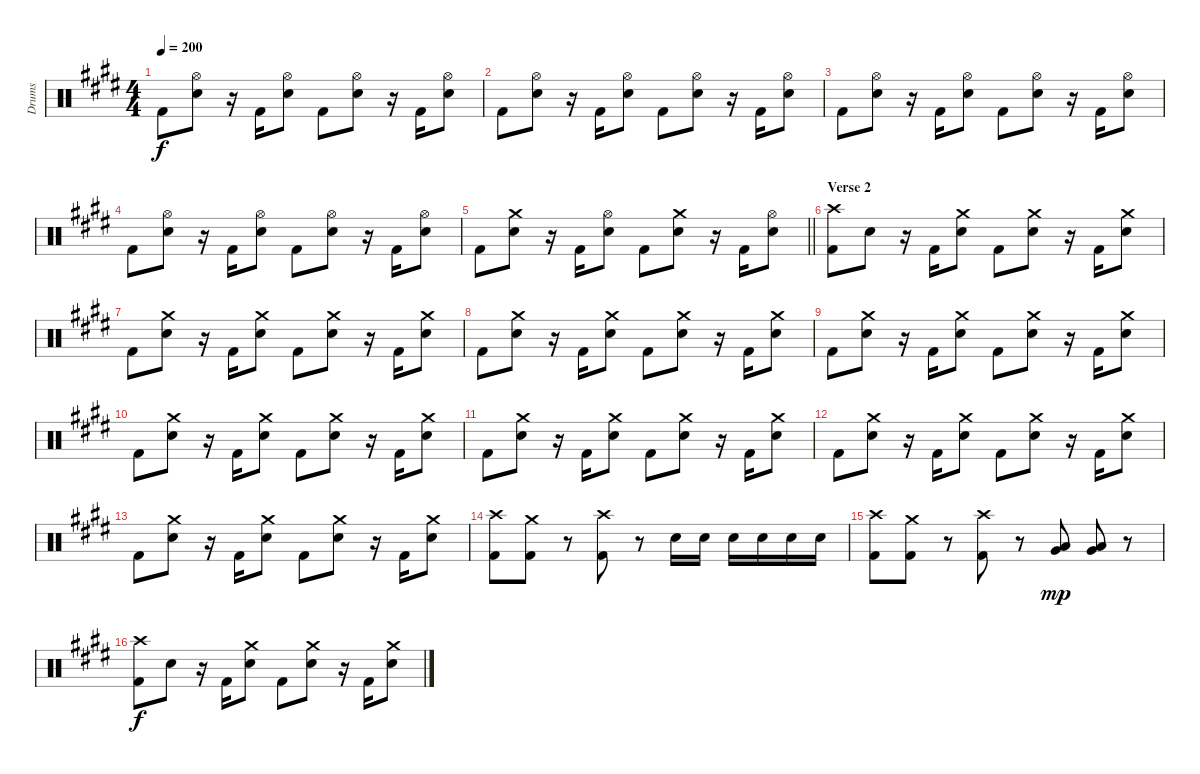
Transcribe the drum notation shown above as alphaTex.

\track ("Drums" "Drums") {instrument percussion}
\staff {score}
\articulation defaults
\ts (4 4)
\tempo 200
\clef neutral
\ks c#minor "Kick (hit) 2".8{dy f}
("Hi-Hat (open)" "Electric Snare (hit)").8 r.16 "Kick (hit) 2".16 ("Hi-Hat (open)" "Electric Snare (hit)").8 "Kick (hit) 2".8 ("Hi-Hat (open)" "Electric Snare (hit)").8 r.16 "Kick (hit) 2".16 ("Hi-Hat (open)" "Electric Snare (hit)").8 |
"Kick (hit) 2".8 ("Hi-Hat (open)" "Electric Snare (hit)").8 r.16 "Kick (hit) 2".16 ("Hi-Hat (open)" "Electric Snare (hit)").8 "Kick (hit) 2".8 ("Hi-Hat (open)" "Electric Snare (hit)").8 r.16 "Kick (hit) 2".16 ("Hi-Hat (open)" "Electric Snare (hit)").8 |
"Kick (hit) 2".8 ("Hi-Hat (open)" "Electric Snare (hit)").8 r.16 "Kick (hit) 2".16 ("Hi-Hat (open)" "Electric Snare (hit)").8 "Kick (hit) 2".8 ("Hi-Hat (open)" "Electric Snare (hit)").8 r.16 "Kick (hit) 2".16 ("Hi-Hat (open)" "Electric Snare (hit)").8 |
"Kick (hit) 2".8 ("Hi-Hat (open)" "Electric Snare (hit)").8 r.16 "Kick (hit) 2".16 ("Hi-Hat (open)" "Electric Snare (hit)").8 "Kick (hit) 2".8 ("Hi-Hat (open)" "Electric Snare (hit)").8 r.16 "Kick (hit) 2".16 ("Hi-Hat (open)" "Electric Snare (hit)").8 |
\barLineRight lightlight "Kick (hit) 2".8
("Crash medium (hit)" "Electric Snare (hit)").8 r.16 "Kick (hit) 2".16 ("Hi-Hat (open)" "Electric Snare (hit)").8 "Kick (hit) 2".8 ("Crash medium (hit)" "Electric Snare (hit)").8 r.16 "Kick (hit) 2".16 ("Hi-Hat (open)" "Electric Snare (hit)").8 |
\section ("" "Verse 2")
("Crash high (hit)" "Kick (hit) 2").8 "Electric Snare (hit)".8 r.16 "Kick (hit) 2".16 ("Crash medium (hit)" "Electric Snare (hit)").8 "Kick (hit) 2".8 ("Crash medium (hit)" "Electric Snare (hit)").8 r.16 "Kick (hit) 2".16 ("Crash medium (hit)" "Electric Snare (hit)").8 |
"Kick (hit) 2".8 ("Crash medium (hit)" "Electric Snare (hit)").8 r.16 "Kick (hit) 2".16 ("Crash medium (hit)" "Electric Snare (hit)").8 "Kick (hit) 2".8 ("Crash medium (hit)" "Electric Snare (hit)").8 r.16 "Kick (hit) 2".16 ("Crash medium (hit)" "Electric Snare (hit)").8 |
"Kick (hit) 2".8 ("Crash medium (hit)" "Electric Snare (hit)").8 r.16 "Kick (hit) 2".16 ("Crash medium (hit)" "Electric Snare (hit)").8 "Kick (hit) 2".8 ("Crash medium (hit)" "Electric Snare (hit)").8 r.16 "Kick (hit) 2".16 ("Crash medium (hit)" "Electric Snare (hit)").8 |
"Kick (hit) 2".8 ("Crash medium (hit)" "Electric Snare (hit)").8 r.16 "Kick (hit) 2".16 ("Crash medium (hit)" "Electric Snare (hit)").8 "Kick (hit) 2".8 ("Crash medium (hit)" "Electric Snare (hit)").8 r.16 "Kick (hit) 2".16 ("Crash medium (hit)" "Electric Snare (hit)").8 |
"Kick (hit) 2".8 ("Crash medium (hit)" "Electric Snare (hit)").8 r.16 "Kick (hit) 2".16 ("Crash medium (hit)" "Electric Snare (hit)").8 "Kick (hit) 2".8 ("Crash medium (hit)" "Electric Snare (hit)").8 r.16 "Kick (hit) 2".16 ("Crash medium (hit)" "Electric Snare (hit)").8 |
"Kick (hit) 2".8 ("Crash medium (hit)" "Electric Snare (hit)").8 r.16 "Kick (hit) 2".16 ("Crash medium (hit)" "Electric Snare (hit)").8 "Kick (hit) 2".8 ("Crash medium (hit)" "Electric Snare (hit)").8 r.16 "Kick (hit) 2".16 ("Crash medium (hit)" "Electric Snare (hit)").8 |
"Kick (hit) 2".8 ("Crash medium (hit)" "Electric Snare (hit)").8 r.16 "Kick (hit) 2".16 ("Crash medium (hit)" "Electric Snare (hit)").8 "Kick (hit) 2".8 ("Crash medium (hit)" "Electric Snare (hit)").8 r.16 "Kick (hit) 2".16 ("Crash medium (hit)" "Electric Snare (hit)").8 |
"Kick (hit) 2".8 ("Crash medium (hit)" "Electric Snare (hit)").8 r.16 "Kick (hit) 2".16 ("Crash medium (hit)" "Electric Snare (hit)").8 "Kick (hit) 2".8 ("Crash medium (hit)" "Electric Snare (hit)").8 r.16 "Kick (hit) 2".16 ("Crash medium (hit)" "Electric Snare (hit)").8 |
("Crash high (hit)" "Kick (hit) 2").8 ("Crash medium (hit)" "Kick (hit) 2").8 r.8 ("Crash high (hit)" "Kick (hit) 2").8 r.8 "Electric Snare (hit)".16 "Electric Snare (hit)".16 "Electric Snare (hit)".16 "Electric Snare (hit)".16 "Electric Snare (hit)".16 "Electric Snare (hit)".16 |
("Crash high (hit)" "Kick (hit) 2").8 ("Crash medium (hit)" "Kick (hit) 2").8 r.8 ("Crash high (hit)" "Kick (hit) 2").8 r.8 ("Low Tom (hit)" "Very Low Tom (hit)").8{dy mp} ("Low Tom (hit)" "Very Low Tom (hit)").8 r.8 |
("Crash high (hit)" "Kick (hit) 2").8{dy f} "Electric Snare (hit)".8 r.16 "Kick (hit) 2".16 ("Crash medium (hit)" "Electric Snare (hit)").8 "Kick (hit) 2".8 ("Crash medium (hit)" "Electric Snare (hit)").8 r.16 "Kick (hit) 2".16 ("Crash medium (hit)" "Electric Snare (hit)").8
